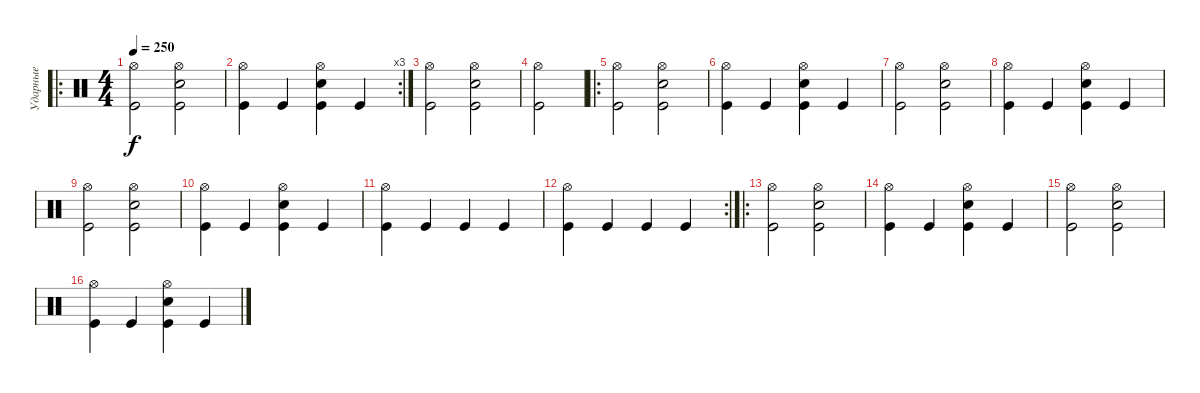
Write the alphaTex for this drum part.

\track ("Ударные" "Ударные") {instrument percussion}
\staff {score}
\articulation defaults
\ro
\ts (4 4)
\tempo 250
\clef neutral
\ks c
("Hi-Hat (open)" "Kick (hit)").2{dy f} ("Hi-Hat (open)" "Snare (hit) 2" "Kick (hit)").2 |
\rc 3
("Hi-Hat (open)" "Kick (hit)").4 "Kick (hit)".4 ("Hi-Hat (open)" "Snare (hit) 2" "Kick (hit)").4 "Kick (hit)".4 |
("Hi-Hat (open)" "Kick (hit)").2 ("Hi-Hat (open)" "Kick (hit)" "Snare (hit) 2").2 |
("Hi-Hat (open)" "Kick (hit)").2 |
\ro
("Hi-Hat (open)" "Kick (hit)").2 ("Hi-Hat (open)" "Snare (hit) 2" "Kick (hit)").2 |
("Hi-Hat (open)" "Kick (hit)").4 "Kick (hit)".4 ("Hi-Hat (open)" "Snare (hit) 2" "Kick (hit)").4 "Kick (hit)".4 |
("Hi-Hat (open)" "Kick (hit)").2 ("Hi-Hat (open)" "Snare (hit) 2" "Kick (hit)").2 |
("Hi-Hat (open)" "Kick (hit)").4 "Kick (hit)".4 ("Hi-Hat (open)" "Snare (hit) 2" "Kick (hit)").4 "Kick (hit)".4 |
("Hi-Hat (open)" "Kick (hit)").2 ("Hi-Hat (open)" "Snare (hit) 2" "Kick (hit)").2 |
("Hi-Hat (open)" "Kick (hit)").4 "Kick (hit)".4 ("Hi-Hat (open)" "Snare (hit) 2" "Kick (hit)").4 "Kick (hit)".4 |
("Hi-Hat (open)" "Kick (hit)").4 "Kick (hit)".4 "Kick (hit)".4 "Kick (hit)".4 |
\rc 2
("Hi-Hat (open)" "Kick (hit)").4 "Kick (hit)".4 "Kick (hit)".4 "Kick (hit)".4 |
\ro
("Hi-Hat (open)" "Kick (hit)").2 ("Hi-Hat (open)" "Snare (hit) 2" "Kick (hit)").2 |
("Hi-Hat (open)" "Kick (hit)").4 "Kick (hit)".4 ("Hi-Hat (open)" "Snare (hit) 2" "Kick (hit)").4 "Kick (hit)".4 |
("Hi-Hat (open)" "Kick (hit)").2 ("Hi-Hat (open)" "Snare (hit) 2" "Kick (hit)").2 |
("Hi-Hat (open)" "Kick (hit)").4 "Kick (hit)".4 ("Hi-Hat (open)" "Snare (hit) 2" "Kick (hit)").4 "Kick (hit)".4
